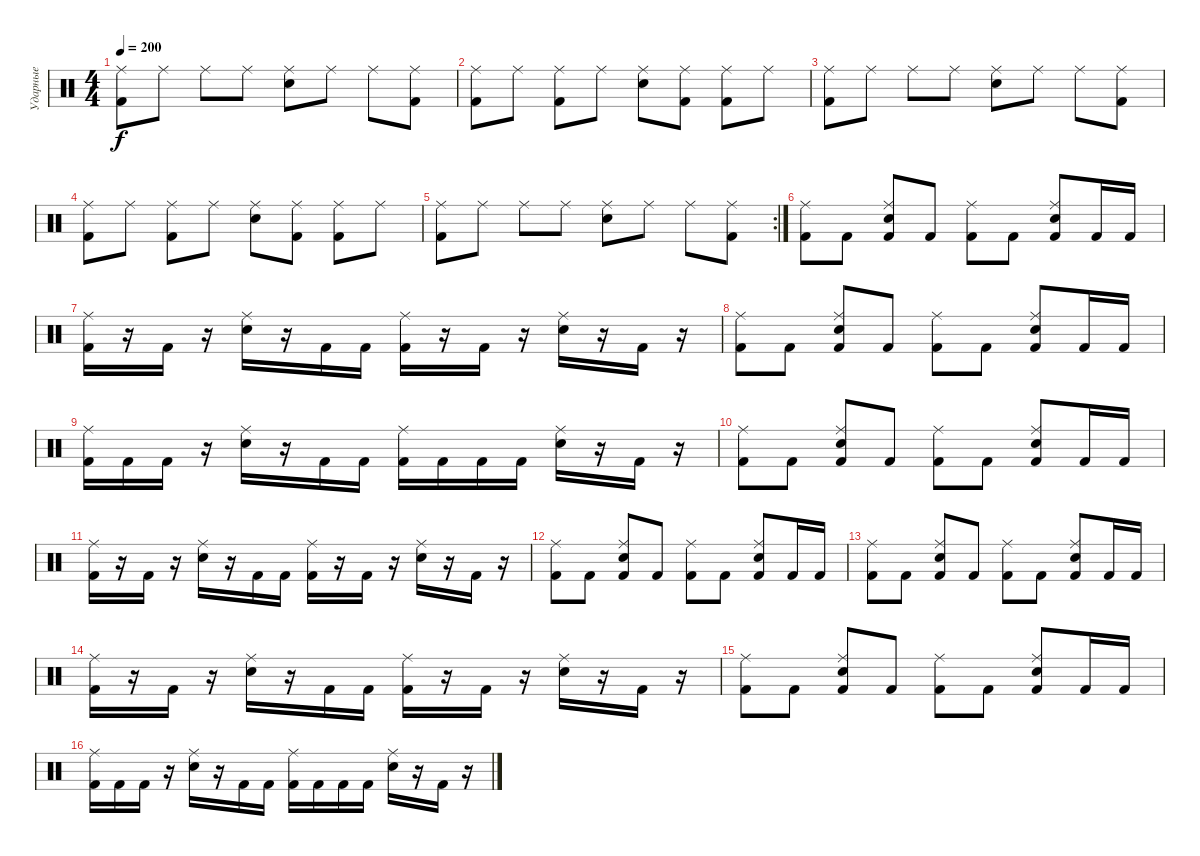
\track ("Ударные" "Ударные") {instrument percussion}
\staff {score}
\articulation defaults
\ts (4 4)
\tempo 200
\clef neutral
\ks c
("Kick (hit) 2" "Ride (middle)").8{dy f} "Ride (middle)".8 "Ride (middle)".8 "Ride (middle)".8 ("Electric Snare (hit)" "Ride (middle)").8 "Ride (middle)".8 "Ride (middle)".8 ("Kick (hit) 2" "Ride (middle)").8 |
("Kick (hit) 2" "Ride (middle)").8 "Ride (middle)".8 ("Kick (hit) 2" "Ride (middle)").8 "Ride (middle)".8 ("Electric Snare (hit)" "Ride (middle)").8 ("Kick (hit) 2" "Ride (middle)").8 ("Kick (hit) 2" "Ride (middle)").8 "Ride (middle)".8 |
("Kick (hit) 2" "Ride (middle)").8 "Ride (middle)".8 "Ride (middle)".8 "Ride (middle)".8 ("Electric Snare (hit)" "Ride (middle)").8 "Ride (middle)".8 "Ride (middle)".8 ("Kick (hit) 2" "Ride (middle)").8 |
("Kick (hit) 2" "Ride (middle)").8 "Ride (middle)".8 ("Kick (hit) 2" "Ride (middle)").8 "Ride (middle)".8 ("Electric Snare (hit)" "Ride (middle)").8 ("Kick (hit) 2" "Ride (middle)").8 ("Kick (hit) 2" "Ride (middle)").8 "Ride (middle)".8 |
\rc 2
("Kick (hit) 2" "Ride (middle)").8 "Ride (middle)".8 "Ride (middle)".8 "Ride (middle)".8 ("Electric Snare (hit)" "Ride (middle)").8 "Ride (middle)".8 "Ride (middle)".8 ("Kick (hit) 2" "Ride (middle)").8 |
("Ride (middle)" "Kick (hit) 2").8 "Kick (hit) 2".8 ("Electric Snare (hit)" "Ride (middle)" "Kick (hit) 2").8 "Kick (hit) 2".8 ("Ride (middle)" "Kick (hit) 2").8 "Kick (hit) 2".8 ("Electric Snare (hit)" "Ride (middle)" "Kick (hit) 2").8 "Kick (hit) 2".16 "Kick (hit) 2".16 |
("Kick (hit) 2" "Ride (middle)").16 r.16 "Kick (hit) 2".16 r.16 ("Electric Snare (hit)" "Ride (middle)").16 r.16 "Kick (hit) 2".16 "Kick (hit) 2".16 ("Kick (hit) 2" "Ride (middle)").16 r.16 "Kick (hit) 2".16 r.16 ("Electric Snare (hit)" "Ride (middle)").16 r.16 "Kick (hit) 2".16 r.16 |
("Ride (middle)" "Kick (hit) 2").8 "Kick (hit) 2".8 ("Electric Snare (hit)" "Ride (middle)" "Kick (hit) 2").8 "Kick (hit) 2".8 ("Ride (middle)" "Kick (hit) 2").8 "Kick (hit) 2".8 ("Electric Snare (hit)" "Ride (middle)" "Kick (hit) 2").8 "Kick (hit) 2".16 "Kick (hit) 2".16 |
("Kick (hit) 2" "Ride (middle)").16 "Kick (hit) 2".16 "Kick (hit) 2".16 r.16 ("Electric Snare (hit)" "Ride (middle)").16 r.16 "Kick (hit) 2".16 "Kick (hit) 2".16 ("Kick (hit) 2" "Ride (middle)").16 "Kick (hit) 2".16 "Kick (hit) 2".16 "Kick (hit) 2".16 ("Electric Snare (hit)" "Ride (middle)").16 r.16 "Kick (hit) 2".16 r.16 |
("Ride (middle)" "Kick (hit) 2").8 "Kick (hit) 2".8 ("Electric Snare (hit)" "Ride (middle)" "Kick (hit) 2").8 "Kick (hit) 2".8 ("Ride (middle)" "Kick (hit) 2").8 "Kick (hit) 2".8 ("Electric Snare (hit)" "Ride (middle)" "Kick (hit) 2").8 "Kick (hit) 2".16 "Kick (hit) 2".16 |
("Kick (hit) 2" "Ride (middle)").16 r.16 "Kick (hit) 2".16 r.16 ("Electric Snare (hit)" "Ride (middle)").16 r.16 "Kick (hit) 2".16 "Kick (hit) 2".16 ("Kick (hit) 2" "Ride (middle)").16 r.16 "Kick (hit) 2".16 r.16 ("Electric Snare (hit)" "Ride (middle)").16 r.16 "Kick (hit) 2".16 r.16 |
("Ride (middle)" "Kick (hit) 2").8 "Kick (hit) 2".8 ("Electric Snare (hit)" "Ride (middle)" "Kick (hit) 2").8 "Kick (hit) 2".8 ("Ride (middle)" "Kick (hit) 2").8 "Kick (hit) 2".8 ("Electric Snare (hit)" "Ride (middle)" "Kick (hit) 2").8 "Kick (hit) 2".16 "Kick (hit) 2".16 |
("Ride (middle)" "Kick (hit) 2").8 "Kick (hit) 2".8 ("Electric Snare (hit)" "Ride (middle)" "Kick (hit) 2").8 "Kick (hit) 2".8 ("Ride (middle)" "Kick (hit) 2").8 "Kick (hit) 2".8 ("Electric Snare (hit)" "Ride (middle)" "Kick (hit) 2").8 "Kick (hit) 2".16 "Kick (hit) 2".16 |
("Kick (hit) 2" "Ride (middle)").16 r.16 "Kick (hit) 2".16 r.16 ("Electric Snare (hit)" "Ride (middle)").16 r.16 "Kick (hit) 2".16 "Kick (hit) 2".16 ("Kick (hit) 2" "Ride (middle)").16 r.16 "Kick (hit) 2".16 r.16 ("Electric Snare (hit)" "Ride (middle)").16 r.16 "Kick (hit) 2".16 r.16 |
("Ride (middle)" "Kick (hit) 2").8 "Kick (hit) 2".8 ("Electric Snare (hit)" "Ride (middle)" "Kick (hit) 2").8 "Kick (hit) 2".8 ("Ride (middle)" "Kick (hit) 2").8 "Kick (hit) 2".8 ("Electric Snare (hit)" "Ride (middle)" "Kick (hit) 2").8 "Kick (hit) 2".16 "Kick (hit) 2".16 |
("Kick (hit) 2" "Ride (middle)").16 "Kick (hit) 2".16 "Kick (hit) 2".16 r.16 ("Electric Snare (hit)" "Ride (middle)").16 r.16 "Kick (hit) 2".16 "Kick (hit) 2".16 ("Kick (hit) 2" "Ride (middle)").16 "Kick (hit) 2".16 "Kick (hit) 2".16 "Kick (hit) 2".16 ("Electric Snare (hit)" "Ride (middle)").16 r.16 "Kick (hit) 2".16 r.16
